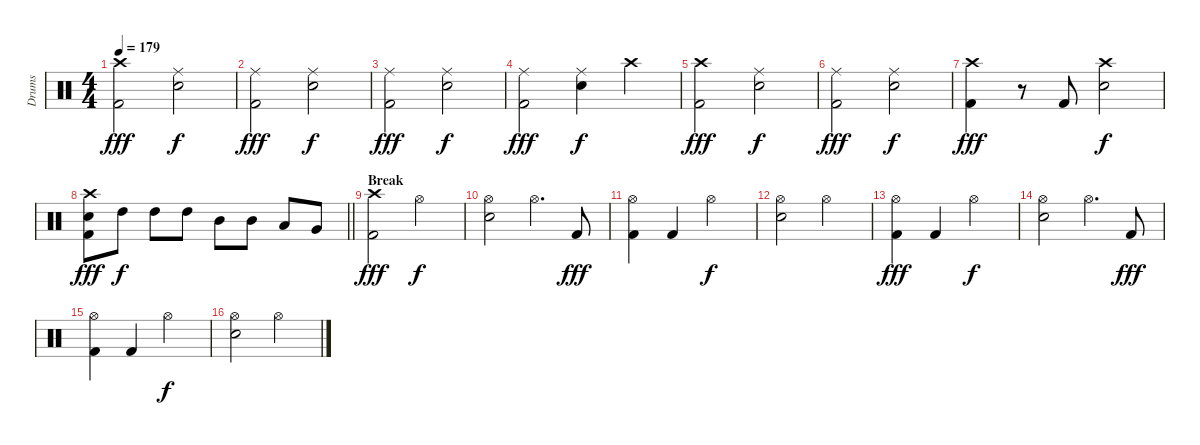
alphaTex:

\track ("Drums" "Drums") {instrument percussion}
\staff {score}
\articulation defaults
\ts (4 4)
\tempo 179
\clef neutral
\ks c
("Crash high (hit)" "Kick (hit) 2").2{dy fff} ("Ride (middle)" "Snare (hit) 2").2{dy f} |
("Ride (middle)" "Kick (hit) 2").2{dy fff} ("Ride (middle)" "Snare (hit) 2").2{dy f} |
("Ride (middle)" "Kick (hit) 2").2{dy fff} ("Ride (middle)" "Snare (hit) 2").2{dy f} |
("Ride (middle)" "Kick (hit) 2").2{dy fff} ("Ride (middle)" "Snare (hit) 2").4{dy f} "Crash high (hit)".4 |
("Crash high (hit)" "Kick (hit) 2").2{dy fff} ("Ride (middle)" "Snare (hit) 2").2{dy f} |
("Ride (middle)" "Kick (hit) 2").2{dy fff} ("Ride (middle)" "Snare (hit) 2").2{dy f} |
("Crash high (hit)" "Kick (hit) 2").4{dy fff} r.8 "Kick (hit) 2".8 ("Crash high (hit)" "Snare (hit) 2").2{dy f} |
\barLineRight lightlight
("Crash high (hit)" "Snare (hit) 2" "Kick (hit) 2").8{dy fff} "High Tom (hit)".8{dy f} "High Tom (hit)".8 "High Tom (hit)".8 "Mid Tom (hit)".8 "Mid Tom (hit)".8 "Low Tom (hit)".8 "Very Low Tom (hit)".8 |
\section ("" "Break")
("Crash high (hit)" "Kick (hit) 2").2{dy fff} "Hi-Hat (open)".2{dy f} |
("Hi-Hat (open)" "Snare (hit) 2").2 "Hi-Hat (open)".4{d} "Kick (hit) 2".8{dy fff} |
("Hi-Hat (open)" "Kick (hit) 2").4 "Kick (hit) 2".4 "Hi-Hat (open)".2{dy f} |
("Hi-Hat (open)" "Snare (hit) 2").2 "Hi-Hat (open)".2 |
("Hi-Hat (open)" "Kick (hit) 2").4{dy fff} "Kick (hit) 2".4 "Hi-Hat (open)".2{dy f} |
("Hi-Hat (open)" "Snare (hit) 2").2 "Hi-Hat (open)".4{d} "Kick (hit) 2".8{dy fff} |
("Hi-Hat (open)" "Kick (hit) 2").4 "Kick (hit) 2".4 "Hi-Hat (open)".2{dy f} |
("Hi-Hat (open)" "Snare (hit) 2").2 "Hi-Hat (open)".2
